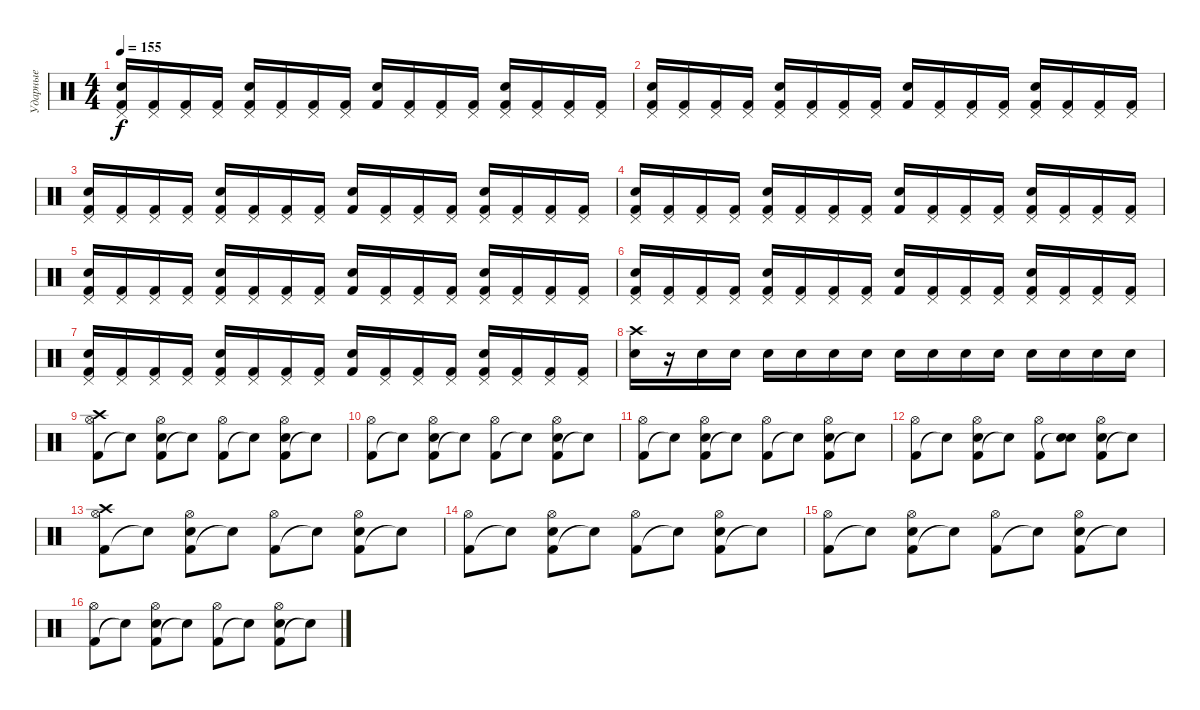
\track ("Ударные" "Ударные") {instrument percussion}
\staff {score}
\articulation defaults
\ts (4 4)
\tempo 155
\clef neutral
\ks c
("Kick (hit) 2" "Pedal Hi-Hat (hit)" "Snare (hit) 2").16{dy f} ("Kick (hit) 2" "Pedal Hi-Hat (hit)").16 ("Kick (hit) 2" "Pedal Hi-Hat (hit)").16 ("Kick (hit) 2" "Pedal Hi-Hat (hit)").16 ("Kick (hit) 2" "Pedal Hi-Hat (hit)" "Snare (hit) 2").16 ("Kick (hit) 2" "Pedal Hi-Hat (hit)").16 ("Kick (hit) 2" "Pedal Hi-Hat (hit)").16 ("Kick (hit) 2" "Pedal Hi-Hat (hit)").16 ("Kick (hit) 2" "Snare (hit) 2").16 ("Kick (hit) 2" "Pedal Hi-Hat (hit)").16 ("Kick (hit) 2" "Pedal Hi-Hat (hit)").16 ("Kick (hit) 2" "Pedal Hi-Hat (hit)").16 ("Kick (hit) 2" "Pedal Hi-Hat (hit)" "Snare (hit) 2").16 ("Kick (hit) 2" "Pedal Hi-Hat (hit)").16 ("Kick (hit) 2" "Pedal Hi-Hat (hit)").16 ("Kick (hit) 2" "Pedal Hi-Hat (hit)").16 |
("Kick (hit) 2" "Pedal Hi-Hat (hit)" "Snare (hit) 2").16 ("Kick (hit) 2" "Pedal Hi-Hat (hit)").16 ("Kick (hit) 2" "Pedal Hi-Hat (hit)").16 ("Kick (hit) 2" "Pedal Hi-Hat (hit)").16 ("Kick (hit) 2" "Pedal Hi-Hat (hit)" "Snare (hit) 2").16 ("Kick (hit) 2" "Pedal Hi-Hat (hit)").16 ("Kick (hit) 2" "Pedal Hi-Hat (hit)").16 ("Kick (hit) 2" "Pedal Hi-Hat (hit)").16 ("Kick (hit) 2" "Snare (hit) 2").16 ("Kick (hit) 2" "Pedal Hi-Hat (hit)").16 ("Kick (hit) 2" "Pedal Hi-Hat (hit)").16 ("Kick (hit) 2" "Pedal Hi-Hat (hit)").16 ("Kick (hit) 2" "Pedal Hi-Hat (hit)" "Snare (hit) 2").16 ("Kick (hit) 2" "Pedal Hi-Hat (hit)").16 ("Kick (hit) 2" "Pedal Hi-Hat (hit)").16 ("Kick (hit) 2" "Pedal Hi-Hat (hit)").16 |
("Kick (hit) 2" "Pedal Hi-Hat (hit)" "Snare (hit) 2").16 ("Kick (hit) 2" "Pedal Hi-Hat (hit)").16 ("Kick (hit) 2" "Pedal Hi-Hat (hit)").16 ("Kick (hit) 2" "Pedal Hi-Hat (hit)").16 ("Kick (hit) 2" "Pedal Hi-Hat (hit)" "Snare (hit) 2").16 ("Kick (hit) 2" "Pedal Hi-Hat (hit)").16 ("Kick (hit) 2" "Pedal Hi-Hat (hit)").16 ("Kick (hit) 2" "Pedal Hi-Hat (hit)").16 ("Kick (hit) 2" "Snare (hit) 2").16 ("Kick (hit) 2" "Pedal Hi-Hat (hit)").16 ("Kick (hit) 2" "Pedal Hi-Hat (hit)").16 ("Kick (hit) 2" "Pedal Hi-Hat (hit)").16 ("Kick (hit) 2" "Pedal Hi-Hat (hit)" "Snare (hit) 2").16 ("Kick (hit) 2" "Pedal Hi-Hat (hit)").16 ("Kick (hit) 2" "Pedal Hi-Hat (hit)").16 ("Kick (hit) 2" "Pedal Hi-Hat (hit)").16 |
("Kick (hit) 2" "Pedal Hi-Hat (hit)" "Snare (hit) 2").16 ("Kick (hit) 2" "Pedal Hi-Hat (hit)").16 ("Kick (hit) 2" "Pedal Hi-Hat (hit)").16 ("Kick (hit) 2" "Pedal Hi-Hat (hit)").16 ("Kick (hit) 2" "Pedal Hi-Hat (hit)" "Snare (hit) 2").16 ("Kick (hit) 2" "Pedal Hi-Hat (hit)").16 ("Kick (hit) 2" "Pedal Hi-Hat (hit)").16 ("Kick (hit) 2" "Pedal Hi-Hat (hit)").16 ("Kick (hit) 2" "Snare (hit) 2").16 ("Kick (hit) 2" "Pedal Hi-Hat (hit)").16 ("Kick (hit) 2" "Pedal Hi-Hat (hit)").16 ("Kick (hit) 2" "Pedal Hi-Hat (hit)").16 ("Kick (hit) 2" "Pedal Hi-Hat (hit)" "Snare (hit) 2").16 ("Kick (hit) 2" "Pedal Hi-Hat (hit)").16 ("Kick (hit) 2" "Pedal Hi-Hat (hit)").16 ("Kick (hit) 2" "Pedal Hi-Hat (hit)").16 |
("Kick (hit) 2" "Pedal Hi-Hat (hit)" "Snare (hit) 2").16 ("Kick (hit) 2" "Pedal Hi-Hat (hit)").16 ("Kick (hit) 2" "Pedal Hi-Hat (hit)").16 ("Kick (hit) 2" "Pedal Hi-Hat (hit)").16 ("Kick (hit) 2" "Pedal Hi-Hat (hit)" "Snare (hit) 2").16 ("Kick (hit) 2" "Pedal Hi-Hat (hit)").16 ("Kick (hit) 2" "Pedal Hi-Hat (hit)").16 ("Kick (hit) 2" "Pedal Hi-Hat (hit)").16 ("Kick (hit) 2" "Snare (hit) 2").16 ("Kick (hit) 2" "Pedal Hi-Hat (hit)").16 ("Kick (hit) 2" "Pedal Hi-Hat (hit)").16 ("Kick (hit) 2" "Pedal Hi-Hat (hit)").16 ("Kick (hit) 2" "Pedal Hi-Hat (hit)" "Snare (hit) 2").16 ("Kick (hit) 2" "Pedal Hi-Hat (hit)").16 ("Kick (hit) 2" "Pedal Hi-Hat (hit)").16 ("Kick (hit) 2" "Pedal Hi-Hat (hit)").16 |
("Kick (hit) 2" "Pedal Hi-Hat (hit)" "Snare (hit) 2").16 ("Kick (hit) 2" "Pedal Hi-Hat (hit)").16 ("Kick (hit) 2" "Pedal Hi-Hat (hit)").16 ("Kick (hit) 2" "Pedal Hi-Hat (hit)").16 ("Kick (hit) 2" "Pedal Hi-Hat (hit)" "Snare (hit) 2").16 ("Kick (hit) 2" "Pedal Hi-Hat (hit)").16 ("Kick (hit) 2" "Pedal Hi-Hat (hit)").16 ("Kick (hit) 2" "Pedal Hi-Hat (hit)").16 ("Kick (hit) 2" "Snare (hit) 2").16 ("Kick (hit) 2" "Pedal Hi-Hat (hit)").16 ("Kick (hit) 2" "Pedal Hi-Hat (hit)").16 ("Kick (hit) 2" "Pedal Hi-Hat (hit)").16 ("Kick (hit) 2" "Pedal Hi-Hat (hit)" "Snare (hit) 2").16 ("Kick (hit) 2" "Pedal Hi-Hat (hit)").16 ("Kick (hit) 2" "Pedal Hi-Hat (hit)").16 ("Kick (hit) 2" "Pedal Hi-Hat (hit)").16 |
("Kick (hit) 2" "Pedal Hi-Hat (hit)" "Snare (hit) 2").16 ("Kick (hit) 2" "Pedal Hi-Hat (hit)").16 ("Kick (hit) 2" "Pedal Hi-Hat (hit)").16 ("Kick (hit) 2" "Pedal Hi-Hat (hit)").16 ("Kick (hit) 2" "Pedal Hi-Hat (hit)" "Snare (hit) 2").16 ("Kick (hit) 2" "Pedal Hi-Hat (hit)").16 ("Kick (hit) 2" "Pedal Hi-Hat (hit)").16 ("Kick (hit) 2" "Pedal Hi-Hat (hit)").16 ("Kick (hit) 2" "Snare (hit) 2").16 ("Kick (hit) 2" "Pedal Hi-Hat (hit)").16 ("Kick (hit) 2" "Pedal Hi-Hat (hit)").16 ("Kick (hit) 2" "Pedal Hi-Hat (hit)").16 ("Kick (hit) 2" "Pedal Hi-Hat (hit)" "Snare (hit) 2").16 ("Kick (hit) 2" "Pedal Hi-Hat (hit)").16 ("Kick (hit) 2" "Pedal Hi-Hat (hit)").16 ("Kick (hit) 2" "Pedal Hi-Hat (hit)").16 |
("Crash high (hit)" "Snare (hit) 2").16 r.16 "Snare (hit) 2".16 "Snare (hit) 2".16 "Snare (hit) 2".16 "Snare (hit) 2".16 "Snare (hit) 2".16 "Snare (hit) 2".16 "Snare (hit) 2".16 "Snare (hit) 2".16 "Snare (hit) 2".16 "Snare (hit) 2".16 "Snare (hit) 2".16 "Snare (hit) 2".16 "Snare (hit) 2".16 "Snare (hit) 2".16 |
("Kick (hit) 2" "Hi-Hat (open)" "Crash high (hit)").8 "Snare (hit)"{t}.8 ("Kick (hit) 2" "Hi-Hat (open)" "Snare (hit) 2").8 "Snare (hit)"{t}.8 ("Kick (hit) 2" "Hi-Hat (open)").8 "Snare (hit)"{t}.8 ("Kick (hit) 2" "Hi-Hat (open)" "Snare (hit) 2").8 "Snare (hit)"{t}.8 |
("Kick (hit) 2" "Hi-Hat (open)").8 "Snare (hit)"{t}.8 ("Kick (hit) 2" "Hi-Hat (open)" "Snare (hit) 2").8 "Snare (hit)"{t}.8 ("Kick (hit) 2" "Hi-Hat (open)").8 "Snare (hit)"{t}.8 ("Kick (hit) 2" "Hi-Hat (open)" "Snare (hit) 2").8 "Snare (hit)"{t}.8 |
("Kick (hit) 2" "Hi-Hat (open)").8 "Snare (hit)"{t}.8 ("Kick (hit) 2" "Hi-Hat (open)" "Snare (hit) 2").8 "Snare (hit)"{t}.8 ("Kick (hit) 2" "Hi-Hat (open)").8 "Snare (hit)"{t}.8 ("Kick (hit) 2" "Hi-Hat (open)" "Snare (hit) 2").8 "Snare (hit)"{t}.8 |
("Kick (hit) 2" "Hi-Hat (open)").8 "Snare (hit)"{t}.8 ("Kick (hit) 2" "Hi-Hat (open)" "Snare (hit) 2").8 "Snare (hit)"{t}.8 ("Kick (hit) 2" "Hi-Hat (open)").8 ("Snare (hit)"{t} "Snare (hit) 2").8 ("Kick (hit) 2" "Hi-Hat (open)" "Snare (hit) 2").8 "Snare (hit)"{t}.8 |
("Kick (hit) 2" "Hi-Hat (open)" "Crash high (hit)").8 "Snare (hit)"{t}.8 ("Kick (hit) 2" "Hi-Hat (open)" "Snare (hit) 2").8 "Snare (hit)"{t}.8 ("Kick (hit) 2" "Hi-Hat (open)").8 "Snare (hit)"{t}.8 ("Kick (hit) 2" "Hi-Hat (open)" "Snare (hit) 2").8 "Snare (hit)"{t}.8 |
("Kick (hit) 2" "Hi-Hat (open)").8 "Snare (hit)"{t}.8 ("Kick (hit) 2" "Hi-Hat (open)" "Snare (hit) 2").8 "Snare (hit)"{t}.8 ("Kick (hit) 2" "Hi-Hat (open)").8 "Snare (hit)"{t}.8 ("Kick (hit) 2" "Hi-Hat (open)" "Snare (hit) 2").8 "Snare (hit)"{t}.8 |
("Kick (hit) 2" "Hi-Hat (open)").8 "Snare (hit)"{t}.8 ("Kick (hit) 2" "Hi-Hat (open)" "Snare (hit) 2").8 "Snare (hit)"{t}.8 ("Kick (hit) 2" "Hi-Hat (open)").8 "Snare (hit)"{t}.8 ("Kick (hit) 2" "Hi-Hat (open)" "Snare (hit) 2").8 "Snare (hit)"{t}.8 |
("Kick (hit) 2" "Hi-Hat (open)").8 "Snare (hit)"{t}.8 ("Kick (hit) 2" "Hi-Hat (open)" "Snare (hit) 2").8 "Snare (hit)"{t}.8 ("Kick (hit) 2" "Hi-Hat (open)").8 "Snare (hit)"{t}.8 ("Kick (hit) 2" "Hi-Hat (open)" "Snare (hit) 2").8 "Snare (hit)"{t}.8
